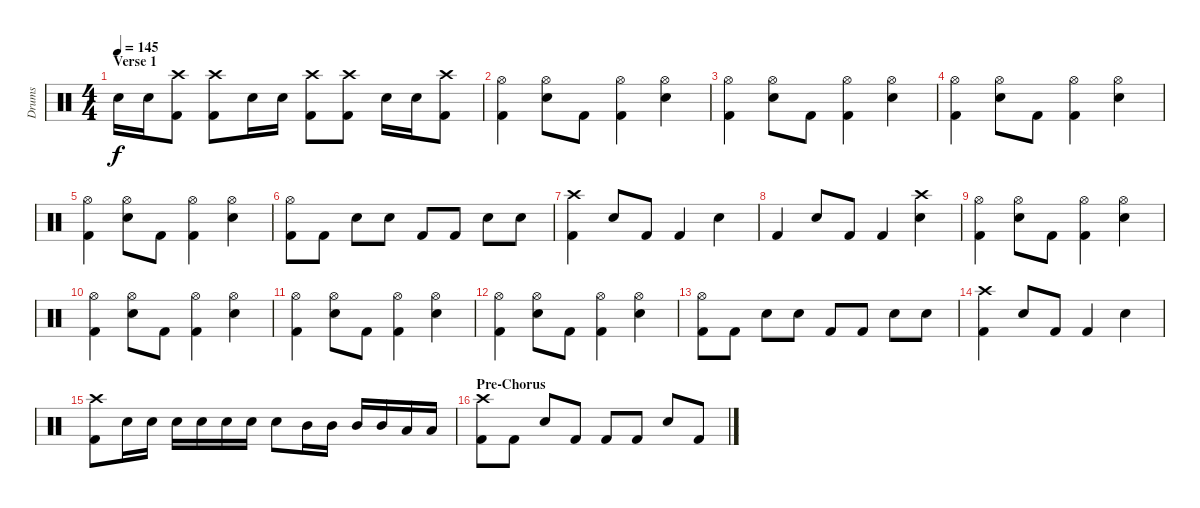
\track ("Drums" "Drums") {instrument percussion}
\staff {score}
\articulation defaults
\ts (4 4)
\section ("" "Verse 1")
\tempo 145
\clef neutral
\ks c "Snare (hit) 2".16{dy f} "Snare (hit) 2".16
("Crash high (hit)" "Kick (hit) 2").8 ("Crash high (hit)" "Kick (hit) 2").8 "Snare (hit) 2".16 "Snare (hit) 2".16 ("Crash high (hit)" "Kick (hit) 2").8 ("Crash high (hit)" "Kick (hit) 2").8 "Snare (hit) 2".16 "Snare (hit) 2".16 ("Crash high (hit)" "Kick (hit) 2").8 |
("Hi-Hat (open)" "Kick (hit) 2").4 ("Hi-Hat (open)" "Snare (hit) 2").8 "Kick (hit) 2".8 ("Hi-Hat (open)" "Kick (hit) 2").4 ("Hi-Hat (open)" "Snare (hit) 2").4 |
("Hi-Hat (open)" "Kick (hit) 2").4 ("Hi-Hat (open)" "Snare (hit) 2").8 "Kick (hit) 2".8 ("Hi-Hat (open)" "Kick (hit) 2").4 ("Hi-Hat (open)" "Snare (hit) 2").4 |
("Hi-Hat (open)" "Kick (hit) 2").4 ("Hi-Hat (open)" "Snare (hit) 2").8 "Kick (hit) 2".8 ("Hi-Hat (open)" "Kick (hit) 2").4 ("Hi-Hat (open)" "Snare (hit) 2").4 |
("Hi-Hat (open)" "Kick (hit) 2").4 ("Hi-Hat (open)" "Snare (hit) 2").8 "Kick (hit) 2".8 ("Hi-Hat (open)" "Kick (hit) 2").4 ("Hi-Hat (open)" "Snare (hit) 2").4 |
("Hi-Hat (open)" "Kick (hit) 2").8 "Kick (hit) 2".8 "Snare (hit) 2".8 "Snare (hit) 2".8 "Kick (hit) 2".8 "Kick (hit) 2".8 "Snare (hit) 2".8 "Snare (hit) 2".8 |
("Crash high (hit)" "Kick (hit) 2").4 "Snare (hit) 2".8 "Kick (hit) 2".8 "Kick (hit) 2".4 "Snare (hit) 2".4 |
"Kick (hit) 2".4 "Snare (hit) 2".8 "Kick (hit) 2".8 "Kick (hit) 2".4 ("Crash high (hit)" "Snare (hit) 2").4 |
("Hi-Hat (open)" "Kick (hit) 2").4 ("Hi-Hat (open)" "Snare (hit) 2").8 "Kick (hit) 2".8 ("Hi-Hat (open)" "Kick (hit) 2").4 ("Hi-Hat (open)" "Snare (hit) 2").4 |
("Hi-Hat (open)" "Kick (hit) 2").4 ("Hi-Hat (open)" "Snare (hit) 2").8 "Kick (hit) 2".8 ("Hi-Hat (open)" "Kick (hit) 2").4 ("Hi-Hat (open)" "Snare (hit) 2").4 |
("Hi-Hat (open)" "Kick (hit) 2").4 ("Hi-Hat (open)" "Snare (hit) 2").8 "Kick (hit) 2".8 ("Hi-Hat (open)" "Kick (hit) 2").4 ("Hi-Hat (open)" "Snare (hit) 2").4 |
("Hi-Hat (open)" "Kick (hit) 2").4 ("Hi-Hat (open)" "Snare (hit) 2").8 "Kick (hit) 2".8 ("Hi-Hat (open)" "Kick (hit) 2").4 ("Hi-Hat (open)" "Snare (hit) 2").4 |
("Hi-Hat (open)" "Kick (hit) 2").8 "Kick (hit) 2".8 "Snare (hit) 2".8 "Snare (hit) 2".8 "Kick (hit) 2".8 "Kick (hit) 2".8 "Snare (hit) 2".8 "Snare (hit) 2".8 |
("Crash high (hit)" "Kick (hit) 2").4 "Snare (hit) 2".8 "Kick (hit) 2".8 "Kick (hit) 2".4 "Snare (hit) 2".4 |
("Crash high (hit)" "Kick (hit) 2").8 "Snare (hit) 2".16 "Snare (hit) 2".16 "Snare (hit) 2".16 "Snare (hit) 2".16 "Snare (hit) 2".16 "Snare (hit) 2".16 "Snare (hit) 2".8 "Mid Tom (hit)".16 "Mid Tom (hit)".16 "Mid Tom (hit)".16 "Mid Tom (hit)".16 "Low Tom (hit)".16 "Low Tom (hit)".16 |
\section ("" "Pre-Chorus")
("Crash high (hit)" "Kick (hit) 2").8 "Kick (hit) 2".8 "Snare (hit) 2".8 "Kick (hit) 2".8 "Kick (hit) 2".8 "Kick (hit) 2".8 "Snare (hit) 2".8 "Kick (hit) 2".8
